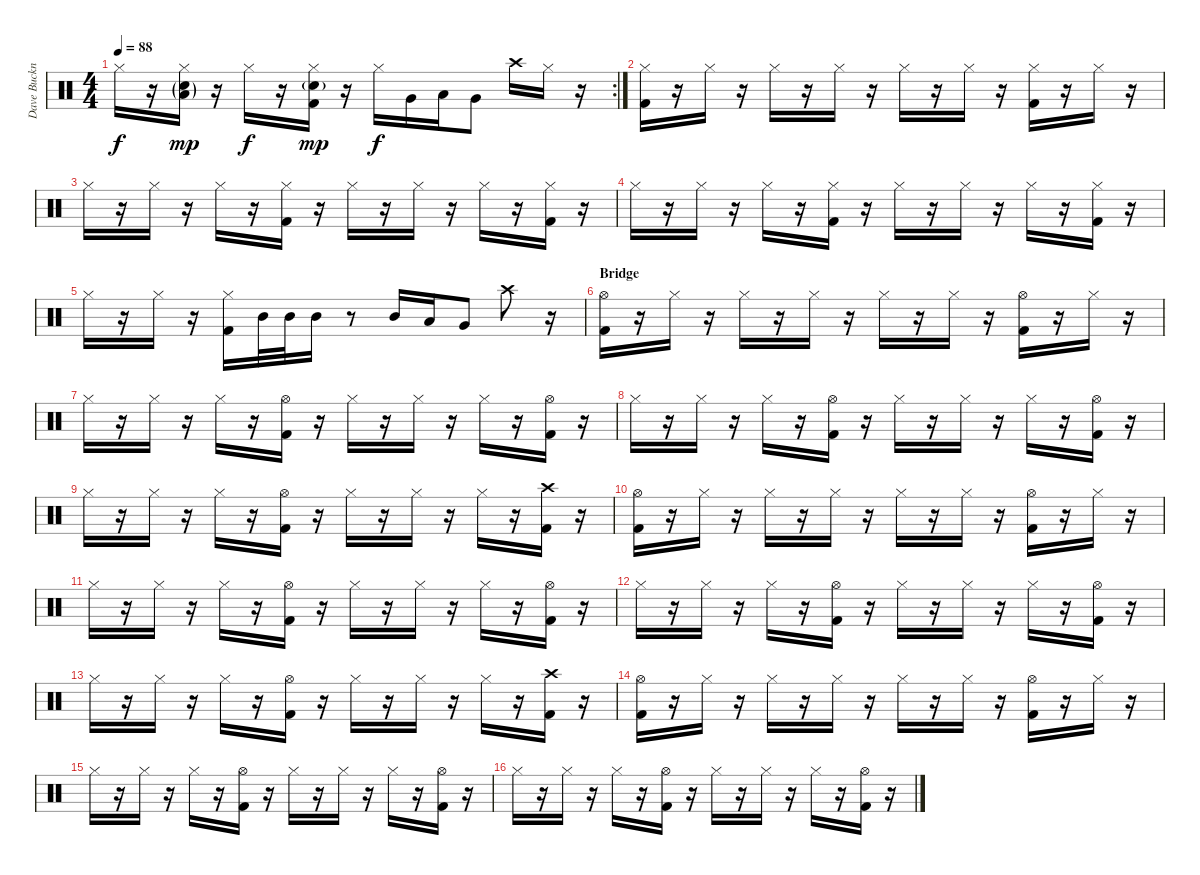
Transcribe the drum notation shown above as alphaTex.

\track ("Dave Buckner" "Dave Buckn") {instrument percussion}
\staff {score}
\articulation defaults
\rc 2
\ts (4 4)
\tempo 88
\clef neutral
\ks c "Hi-Hat (closed)".16{dy f}
r.16 ("Hi-Hat (closed)" "Low Tom (hit)"{g} "Snare (hit) 2"{g}).16{dy mp} r.16 "Hi-Hat (closed)".16{dy f} r.16 ("Hi-Hat (closed)" "Snare (hit) 2"{g} "Kick (hit) 2").16{dy mp} r.16 "Hi-Hat (closed)".16{dy f} "Very Low Tom (hit)".16 "Low Floor Tom (hit)".16 "Very Low Tom (hit)".8 "Crash high (hit)".16 "Hi-Hat (closed)".16 r.16 |
("Hi-Hat (closed)" "Kick (hit) 2").16 r.16 "Hi-Hat (closed)".16 r.16 "Hi-Hat (closed)".16 r.16 "Hi-Hat (closed)".16 r.16 "Hi-Hat (closed)".16 r.16 "Hi-Hat (closed)".16 r.16 ("Hi-Hat (closed)" "Kick (hit) 2").16 r.16 "Hi-Hat (closed)".16 r.16 |
"Hi-Hat (closed)".16 r.16 "Hi-Hat (closed)".16 r.16 "Hi-Hat (closed)".16 r.16 ("Hi-Hat (closed)" "Kick (hit) 2").16 r.16 "Hi-Hat (closed)".16 r.16 "Hi-Hat (closed)".16 r.16 "Hi-Hat (closed)".16 r.16 ("Hi-Hat (closed)" "Kick (hit) 2").16 r.16 |
"Hi-Hat (closed)".16 r.16 "Hi-Hat (closed)".16 r.16 "Hi-Hat (closed)".16 r.16 ("Hi-Hat (closed)" "Kick (hit) 2").16 r.16 "Hi-Hat (closed)".16 r.16 "Hi-Hat (closed)".16 r.16 "Hi-Hat (closed)".16 r.16 ("Hi-Hat (closed)" "Kick (hit) 2").16 r.16 |
"Hi-Hat (closed)".16 r.16 "Hi-Hat (closed)".16 r.16 ("Hi-Hat (closed)" "Kick (hit) 2").16 "Mid Tom (hit)".32 "Mid Tom (hit)".32 "Mid Tom (hit)".16 r.8 "Mid Tom (hit)".16 "Low Tom (hit)".16 "Very Low Tom (hit)".8 "Crash high (hit)".8 r.16 |
\section ("" "Bridge")
("Hi-Hat (open)" "Kick (hit) 2").16 r.16 "Hi-Hat (closed)".16 r.16 "Hi-Hat (closed)".16 r.16 "Hi-Hat (closed)".16 r.16 "Hi-Hat (closed)".16 r.16 "Hi-Hat (closed)".16 r.16 ("Hi-Hat (open)" "Kick (hit) 2").16 r.16 "Hi-Hat (closed)".16 r.16 |
"Hi-Hat (closed)".16 r.16 "Hi-Hat (closed)".16 r.16 "Hi-Hat (closed)".16 r.16 ("Hi-Hat (open)" "Kick (hit) 2").16 r.16 "Hi-Hat (closed)".16 r.16 "Hi-Hat (closed)".16 r.16 "Hi-Hat (closed)".16 r.16 ("Hi-Hat (open)" "Kick (hit) 2").16 r.16 |
"Hi-Hat (closed)".16 r.16 "Hi-Hat (closed)".16 r.16 "Hi-Hat (closed)".16 r.16 ("Hi-Hat (open)" "Kick (hit) 2").16 r.16 "Hi-Hat (closed)".16 r.16 "Hi-Hat (closed)".16 r.16 "Hi-Hat (closed)".16 r.16 ("Hi-Hat (open)" "Kick (hit) 2").16 r.16 |
"Hi-Hat (closed)".16 r.16 "Hi-Hat (closed)".16 r.16 "Hi-Hat (closed)".16 r.16 ("Hi-Hat (open)" "Kick (hit) 2").16 r.16 "Hi-Hat (closed)".16 r.16 "Hi-Hat (closed)".16 r.16 "Hi-Hat (closed)".16 r.16 ("Crash high (hit)" "Kick (hit) 2").16 r.16 |
("Hi-Hat (open)" "Kick (hit) 2").16 r.16 "Hi-Hat (closed)".16 r.16 "Hi-Hat (closed)".16 r.16 "Hi-Hat (closed)".16 r.16 "Hi-Hat (closed)".16 r.16 "Hi-Hat (closed)".16 r.16 ("Hi-Hat (open)" "Kick (hit) 2").16 r.16 "Hi-Hat (closed)".16 r.16 |
"Hi-Hat (closed)".16 r.16 "Hi-Hat (closed)".16 r.16 "Hi-Hat (closed)".16 r.16 ("Hi-Hat (open)" "Kick (hit) 2").16 r.16 "Hi-Hat (closed)".16 r.16 "Hi-Hat (closed)".16 r.16 "Hi-Hat (closed)".16 r.16 ("Hi-Hat (open)" "Kick (hit) 2").16 r.16 |
"Hi-Hat (closed)".16 r.16 "Hi-Hat (closed)".16 r.16 "Hi-Hat (closed)".16 r.16 ("Hi-Hat (open)" "Kick (hit) 2").16 r.16 "Hi-Hat (closed)".16 r.16 "Hi-Hat (closed)".16 r.16 "Hi-Hat (closed)".16 r.16 ("Hi-Hat (open)" "Kick (hit) 2").16 r.16 |
"Hi-Hat (closed)".16 r.16 "Hi-Hat (closed)".16 r.16 "Hi-Hat (closed)".16 r.16 ("Hi-Hat (open)" "Kick (hit) 2").16 r.16 "Hi-Hat (closed)".16 r.16 "Hi-Hat (closed)".16 r.16 "Hi-Hat (closed)".16 r.16 ("Crash high (hit)" "Kick (hit) 2").16 r.16 |
("Hi-Hat (open)" "Kick (hit) 2").16 r.16 "Hi-Hat (closed)".16 r.16 "Hi-Hat (closed)".16 r.16 "Hi-Hat (closed)".16 r.16 "Hi-Hat (closed)".16 r.16 "Hi-Hat (closed)".16 r.16 ("Hi-Hat (open)" "Kick (hit) 2").16 r.16 "Hi-Hat (closed)".16 r.16 |
"Hi-Hat (closed)".16 r.16 "Hi-Hat (closed)".16 r.16 "Hi-Hat (closed)".16 r.16 ("Hi-Hat (open)" "Kick (hit) 2").16 r.16 "Hi-Hat (closed)".16 r.16 "Hi-Hat (closed)".16 r.16 "Hi-Hat (closed)".16 r.16 ("Hi-Hat (open)" "Kick (hit) 2").16 r.16 |
"Hi-Hat (closed)".16 r.16 "Hi-Hat (closed)".16 r.16 "Hi-Hat (closed)".16 r.16 ("Hi-Hat (open)" "Kick (hit) 2").16 r.16 "Hi-Hat (closed)".16 r.16 "Hi-Hat (closed)".16 r.16 "Hi-Hat (closed)".16 r.16 ("Hi-Hat (open)" "Kick (hit) 2").16 r.16
